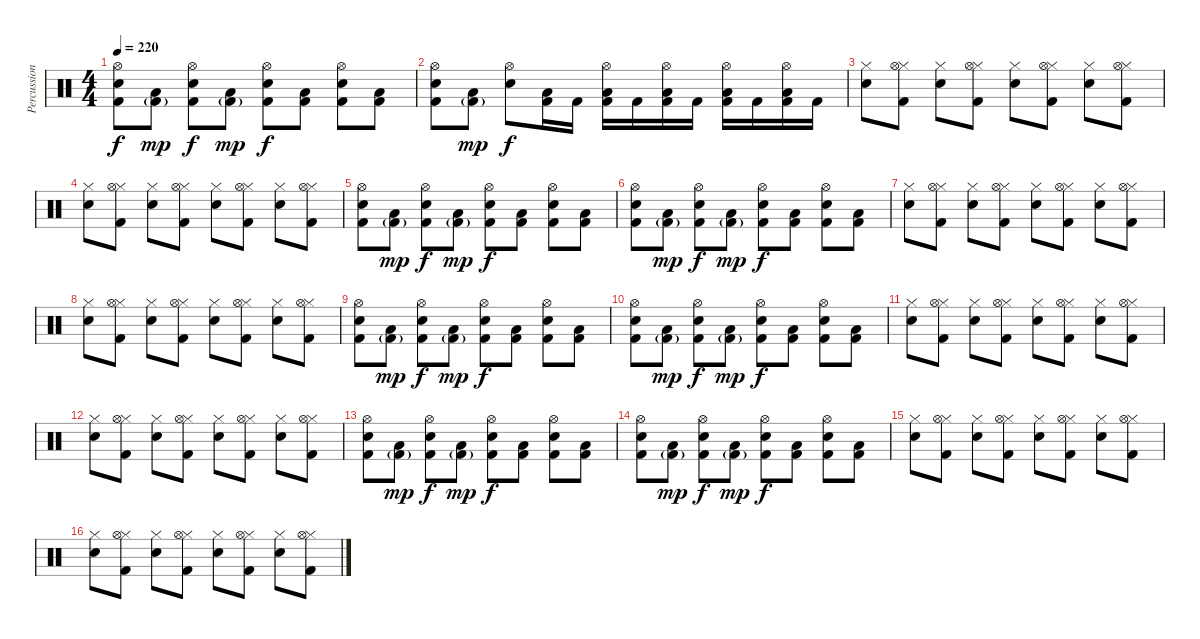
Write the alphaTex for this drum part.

\track ("Percussions" "Percussion") {instrument percussion}
\staff {score}
\articulation defaults
\ts (4 4)
\tempo 220
\clef neutral
\ks c
("Hi-Hat (open)" "Electric Snare (hit)" "Kick (hit) 2").8{dy f} ("Low Tom (hit)" "Kick (hit) 2"{g}).8{dy mp} ("Hi-Hat (open)" "Electric Snare (hit)" "Kick (hit) 2").8{dy f} ("Low Tom (hit)" "Kick (hit) 2"{g}).8{dy mp} ("Hi-Hat (open)" "Electric Snare (hit)" "Kick (hit) 2").8{dy f} ("Low Tom (hit)" "Kick (hit) 2").8 ("Hi-Hat (open)" "Electric Snare (hit)" "Kick (hit) 2").8 ("Low Tom (hit)" "Kick (hit) 2").8 |
("Hi-Hat (open)" "Electric Snare (hit)" "Kick (hit) 2").8 ("Low Tom (hit)" "Kick (hit) 2"{g}).8{dy mp} ("Hi-Hat (open)" "Electric Snare (hit)").8{dy f} ("Kick (hit) 2" "Low Tom (hit)").16 "Kick (hit) 2".16 ("Hi-Hat (open)" "Kick (hit) 2" "Low Tom (hit)").16 "Kick (hit) 2".16 ("Hi-Hat (open)" "Kick (hit) 2" "Low Tom (hit)").16 "Kick (hit) 2".16 ("Hi-Hat (open)" "Kick (hit) 2" "Low Tom (hit)").16 "Kick (hit) 2".16 ("Hi-Hat (open)" "Kick (hit) 2" "Low Tom (hit)").16 "Kick (hit) 2".16 |
("Hi-Hat (closed)" "Electric Snare (hit)").8 ("Hi-Hat (closed)" "Kick (hit) 2" "Hi-Hat (open)").8 ("Hi-Hat (closed)" "Electric Snare (hit)").8 ("Hi-Hat (closed)" "Kick (hit) 2" "Hi-Hat (open)").8 ("Hi-Hat (closed)" "Electric Snare (hit)").8 ("Hi-Hat (closed)" "Kick (hit) 2" "Hi-Hat (open)").8 ("Hi-Hat (closed)" "Electric Snare (hit)").8 ("Hi-Hat (closed)" "Kick (hit) 2" "Hi-Hat (open)").8 |
("Hi-Hat (closed)" "Electric Snare (hit)").8 ("Hi-Hat (closed)" "Kick (hit) 2" "Hi-Hat (open)").8 ("Hi-Hat (closed)" "Electric Snare (hit)").8 ("Hi-Hat (closed)" "Kick (hit) 2" "Hi-Hat (open)").8 ("Hi-Hat (closed)" "Electric Snare (hit)").8 ("Hi-Hat (closed)" "Kick (hit) 2" "Hi-Hat (open)").8 ("Hi-Hat (closed)" "Electric Snare (hit)").8 ("Hi-Hat (closed)" "Kick (hit) 2" "Hi-Hat (open)").8 |
("Hi-Hat (open)" "Electric Snare (hit)" "Kick (hit) 2").8 ("Low Tom (hit)" "Kick (hit) 2"{g}).8{dy mp} ("Hi-Hat (open)" "Electric Snare (hit)" "Kick (hit) 2").8{dy f} ("Low Tom (hit)" "Kick (hit) 2"{g}).8{dy mp} ("Hi-Hat (open)" "Electric Snare (hit)" "Kick (hit) 2").8{dy f} ("Low Tom (hit)" "Kick (hit) 2").8 ("Hi-Hat (open)" "Electric Snare (hit)" "Kick (hit) 2").8 ("Low Tom (hit)" "Kick (hit) 2").8 |
("Hi-Hat (open)" "Electric Snare (hit)" "Kick (hit) 2").8 ("Low Tom (hit)" "Kick (hit) 2"{g}).8{dy mp} ("Hi-Hat (open)" "Electric Snare (hit)" "Kick (hit) 2").8{dy f} ("Low Tom (hit)" "Kick (hit) 2"{g}).8{dy mp} ("Hi-Hat (open)" "Electric Snare (hit)" "Kick (hit) 2").8{dy f} ("Low Tom (hit)" "Kick (hit) 2").8 ("Hi-Hat (open)" "Electric Snare (hit)" "Kick (hit) 2").8 ("Low Tom (hit)" "Kick (hit) 2").8 |
("Hi-Hat (closed)" "Electric Snare (hit)").8 ("Hi-Hat (closed)" "Kick (hit) 2" "Hi-Hat (open)").8 ("Hi-Hat (closed)" "Electric Snare (hit)").8 ("Hi-Hat (closed)" "Kick (hit) 2" "Hi-Hat (open)").8 ("Hi-Hat (closed)" "Electric Snare (hit)").8 ("Hi-Hat (closed)" "Kick (hit) 2" "Hi-Hat (open)").8 ("Hi-Hat (closed)" "Electric Snare (hit)").8 ("Hi-Hat (closed)" "Kick (hit) 2" "Hi-Hat (open)").8 |
("Hi-Hat (closed)" "Electric Snare (hit)").8 ("Hi-Hat (closed)" "Kick (hit) 2" "Hi-Hat (open)").8 ("Hi-Hat (closed)" "Electric Snare (hit)").8 ("Hi-Hat (closed)" "Kick (hit) 2" "Hi-Hat (open)").8 ("Hi-Hat (closed)" "Electric Snare (hit)").8 ("Hi-Hat (closed)" "Kick (hit) 2" "Hi-Hat (open)").8 ("Hi-Hat (closed)" "Electric Snare (hit)").8 ("Hi-Hat (closed)" "Kick (hit) 2" "Hi-Hat (open)").8 |
("Hi-Hat (open)" "Electric Snare (hit)" "Kick (hit) 2").8 ("Low Tom (hit)" "Kick (hit) 2"{g}).8{dy mp} ("Hi-Hat (open)" "Electric Snare (hit)" "Kick (hit) 2").8{dy f} ("Low Tom (hit)" "Kick (hit) 2"{g}).8{dy mp} ("Hi-Hat (open)" "Electric Snare (hit)" "Kick (hit) 2").8{dy f} ("Low Tom (hit)" "Kick (hit) 2").8 ("Hi-Hat (open)" "Electric Snare (hit)" "Kick (hit) 2").8 ("Low Tom (hit)" "Kick (hit) 2").8 |
("Hi-Hat (open)" "Electric Snare (hit)" "Kick (hit) 2").8 ("Low Tom (hit)" "Kick (hit) 2"{g}).8{dy mp} ("Hi-Hat (open)" "Electric Snare (hit)" "Kick (hit) 2").8{dy f} ("Low Tom (hit)" "Kick (hit) 2"{g}).8{dy mp} ("Hi-Hat (open)" "Electric Snare (hit)" "Kick (hit) 2").8{dy f} ("Low Tom (hit)" "Kick (hit) 2").8 ("Hi-Hat (open)" "Electric Snare (hit)" "Kick (hit) 2").8 ("Low Tom (hit)" "Kick (hit) 2").8 |
("Hi-Hat (closed)" "Electric Snare (hit)").8 ("Hi-Hat (closed)" "Kick (hit) 2" "Hi-Hat (open)").8 ("Hi-Hat (closed)" "Electric Snare (hit)").8 ("Hi-Hat (closed)" "Kick (hit) 2" "Hi-Hat (open)").8 ("Hi-Hat (closed)" "Electric Snare (hit)").8 ("Hi-Hat (closed)" "Kick (hit) 2" "Hi-Hat (open)").8 ("Hi-Hat (closed)" "Electric Snare (hit)").8 ("Hi-Hat (closed)" "Kick (hit) 2" "Hi-Hat (open)").8 |
("Hi-Hat (closed)" "Electric Snare (hit)").8 ("Hi-Hat (closed)" "Kick (hit) 2" "Hi-Hat (open)").8 ("Hi-Hat (closed)" "Electric Snare (hit)").8 ("Hi-Hat (closed)" "Kick (hit) 2" "Hi-Hat (open)").8 ("Hi-Hat (closed)" "Electric Snare (hit)").8 ("Hi-Hat (closed)" "Kick (hit) 2" "Hi-Hat (open)").8 ("Hi-Hat (closed)" "Electric Snare (hit)").8 ("Hi-Hat (closed)" "Kick (hit) 2" "Hi-Hat (open)").8 |
("Hi-Hat (open)" "Electric Snare (hit)" "Kick (hit) 2").8 ("Low Tom (hit)" "Kick (hit) 2"{g}).8{dy mp} ("Hi-Hat (open)" "Electric Snare (hit)" "Kick (hit) 2").8{dy f} ("Low Tom (hit)" "Kick (hit) 2"{g}).8{dy mp} ("Hi-Hat (open)" "Electric Snare (hit)" "Kick (hit) 2").8{dy f} ("Low Tom (hit)" "Kick (hit) 2").8 ("Hi-Hat (open)" "Electric Snare (hit)" "Kick (hit) 2").8 ("Low Tom (hit)" "Kick (hit) 2").8 |
("Hi-Hat (open)" "Electric Snare (hit)" "Kick (hit) 2").8 ("Low Tom (hit)" "Kick (hit) 2"{g}).8{dy mp} ("Hi-Hat (open)" "Electric Snare (hit)" "Kick (hit) 2").8{dy f} ("Low Tom (hit)" "Kick (hit) 2"{g}).8{dy mp} ("Hi-Hat (open)" "Electric Snare (hit)" "Kick (hit) 2").8{dy f} ("Low Tom (hit)" "Kick (hit) 2").8 ("Hi-Hat (open)" "Electric Snare (hit)" "Kick (hit) 2").8 ("Low Tom (hit)" "Kick (hit) 2").8 |
("Hi-Hat (closed)" "Electric Snare (hit)").8 ("Hi-Hat (closed)" "Kick (hit) 2" "Hi-Hat (open)").8 ("Hi-Hat (closed)" "Electric Snare (hit)").8 ("Hi-Hat (closed)" "Kick (hit) 2" "Hi-Hat (open)").8 ("Hi-Hat (closed)" "Electric Snare (hit)").8 ("Hi-Hat (closed)" "Kick (hit) 2" "Hi-Hat (open)").8 ("Hi-Hat (closed)" "Electric Snare (hit)").8 ("Hi-Hat (closed)" "Kick (hit) 2" "Hi-Hat (open)").8 |
("Hi-Hat (closed)" "Electric Snare (hit)").8 ("Hi-Hat (closed)" "Kick (hit) 2" "Hi-Hat (open)").8 ("Hi-Hat (closed)" "Electric Snare (hit)").8 ("Hi-Hat (closed)" "Kick (hit) 2" "Hi-Hat (open)").8 ("Hi-Hat (closed)" "Electric Snare (hit)").8 ("Hi-Hat (closed)" "Kick (hit) 2" "Hi-Hat (open)").8 ("Hi-Hat (closed)" "Electric Snare (hit)").8 ("Hi-Hat (closed)" "Kick (hit) 2" "Hi-Hat (open)").8
